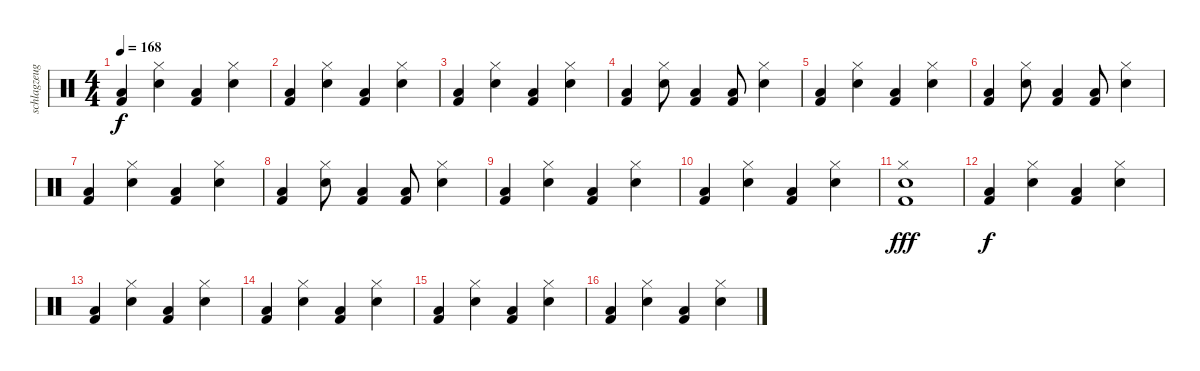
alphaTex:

\track ("schlagzeug" "schlagzeug") {instrument percussion}
\staff {score}
\articulation defaults
\ts (4 4)
\tempo 168
\clef neutral
\ks c
("Low Floor Tom (hit)" "Kick (hit) 2").4{dy f} ("Electric Snare (hit)" "Hi-Hat (closed)").4 ("Low Floor Tom (hit)" "Kick (hit) 2").4 ("Electric Snare (hit)" "Hi-Hat (closed)").4 |
("Low Floor Tom (hit)" "Kick (hit) 2").4 ("Electric Snare (hit)" "Hi-Hat (closed)").4 ("Low Floor Tom (hit)" "Kick (hit) 2").4 ("Electric Snare (hit)" "Hi-Hat (closed)").4 |
("Low Floor Tom (hit)" "Kick (hit) 2").4 ("Electric Snare (hit)" "Hi-Hat (closed)").4 ("Low Floor Tom (hit)" "Kick (hit) 2").4 ("Electric Snare (hit)" "Hi-Hat (closed)").4 |
("Low Floor Tom (hit)" "Kick (hit) 2").4 ("Electric Snare (hit)" "Hi-Hat (closed)").8 ("Low Floor Tom (hit)" "Kick (hit) 2").4 ("Low Floor Tom (hit)" "Kick (hit) 2").8 ("Electric Snare (hit)" "Hi-Hat (closed)").4 |
("Low Floor Tom (hit)" "Kick (hit) 2").4 ("Electric Snare (hit)" "Hi-Hat (closed)").4 ("Low Floor Tom (hit)" "Kick (hit) 2").4 ("Electric Snare (hit)" "Hi-Hat (closed)").4 |
("Low Floor Tom (hit)" "Kick (hit) 2").4 ("Electric Snare (hit)" "Hi-Hat (closed)").8 ("Low Floor Tom (hit)" "Kick (hit) 2").4 ("Low Floor Tom (hit)" "Kick (hit) 2").8 ("Electric Snare (hit)" "Hi-Hat (closed)").4 |
("Low Floor Tom (hit)" "Kick (hit) 2").4 ("Electric Snare (hit)" "Hi-Hat (closed)").4 ("Low Floor Tom (hit)" "Kick (hit) 2").4 ("Electric Snare (hit)" "Hi-Hat (closed)").4 |
("Low Floor Tom (hit)" "Kick (hit) 2").4 ("Electric Snare (hit)" "Hi-Hat (closed)").8 ("Low Floor Tom (hit)" "Kick (hit) 2").4 ("Low Floor Tom (hit)" "Kick (hit) 2").8 ("Electric Snare (hit)" "Hi-Hat (closed)").4 |
("Low Floor Tom (hit)" "Kick (hit) 2").4 ("Electric Snare (hit)" "Hi-Hat (closed)").4 ("Low Floor Tom (hit)" "Kick (hit) 2").4 ("Electric Snare (hit)" "Hi-Hat (closed)").4 |
("Low Floor Tom (hit)" "Kick (hit) 2").4 ("Electric Snare (hit)" "Hi-Hat (closed)").4 ("Low Floor Tom (hit)" "Kick (hit) 2").4 ("Electric Snare (hit)" "Hi-Hat (closed)").4 |
("Electric Snare (hit)" "Hi-Hat (closed)" "Kick (hit) 2").1{dy fff} |
("Low Floor Tom (hit)" "Kick (hit) 2").4{dy f} ("Electric Snare (hit)" "Hi-Hat (closed)").4 ("Low Floor Tom (hit)" "Kick (hit) 2").4 ("Electric Snare (hit)" "Hi-Hat (closed)").4 |
("Low Floor Tom (hit)" "Kick (hit) 2").4 ("Electric Snare (hit)" "Hi-Hat (closed)").4 ("Low Floor Tom (hit)" "Kick (hit) 2").4 ("Electric Snare (hit)" "Hi-Hat (closed)").4 |
("Low Floor Tom (hit)" "Kick (hit) 2").4 ("Electric Snare (hit)" "Hi-Hat (closed)").4 ("Low Floor Tom (hit)" "Kick (hit) 2").4 ("Electric Snare (hit)" "Hi-Hat (closed)").4 |
("Low Floor Tom (hit)" "Kick (hit) 2").4 ("Electric Snare (hit)" "Hi-Hat (closed)").4 ("Low Floor Tom (hit)" "Kick (hit) 2").4 ("Electric Snare (hit)" "Hi-Hat (closed)").4 |
("Low Floor Tom (hit)" "Kick (hit) 2").4 ("Electric Snare (hit)" "Hi-Hat (closed)").4 ("Low Floor Tom (hit)" "Kick (hit) 2").4 ("Electric Snare (hit)" "Hi-Hat (closed)").4
